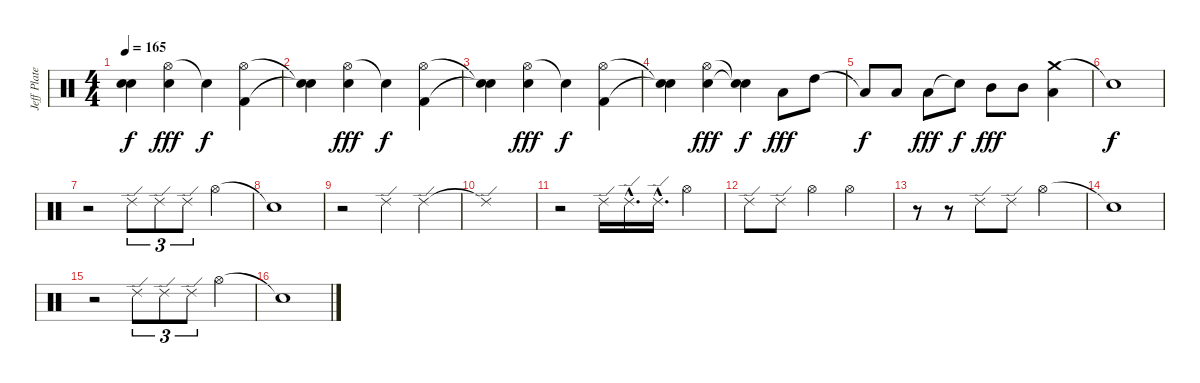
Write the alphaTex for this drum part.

\track ("Jeff Plate" "Jeff Plate") {instrument percussion}
\staff {score}
\articulation defaults
\ts (4 4)
\tempo 165
\clef neutral
\ks c
("Snare (hit)"{t} "Snare (hit)"{t}).4{dy f} ("Hi-Hat (open)" "Electric Snare (hit)").4{dy fff} "Snare (hit)"{t}.4{dy f} ("Hi-Hat (open)" "Kick (hit) 2").4 |
("Snare (hit)"{t} "Snare (hit)"{t}).4 ("Hi-Hat (open)" "Electric Snare (hit)").4{dy fff} "Snare (hit)"{t}.4{dy f} ("Hi-Hat (open)" "Kick (hit) 2").4 |
("Snare (hit)"{t} "Snare (hit)"{t}).4 ("Hi-Hat (open)" "Electric Snare (hit)").4{dy fff} "Snare (hit)"{t}.4{dy f} ("Hi-Hat (open)" "Kick (hit) 2").4 |
("Snare (hit)"{t} "Snare (hit)"{t}).4 ("Hi-Hat (open)" "Electric Snare (hit)").4{dy fff} ("Snare (hit)"{t} "Snare (hit)"{t}).4{dy f} "Low Tom (hit)".8{dy fff} "High Tom (hit)".8 |
"Low Tom (hit)"{t}.8{dy f} "Low Tom (hit)".8 "Low Tom (hit)".8{dy fff} "Snare (hit)"{t}.8{dy f} "Mid Tom (hit)".8{dy fff} "Mid Tom (hit)".8 ("Crash medium (hit)" "Low Tom (hit)").4 |
"Snare (hit)"{t}.1{dy f} |
r.2 "Ride (edge) 2".8{tu (3 2)} "Ride (edge) 2".8{tu (3 2)} "Ride (edge) 2".8{tu (3 2)} "Hi-Hat (open)".4 |
"Snare (hit)"{t}.1 |
r.2 "Ride (edge) 2".4 "Ride (edge) 2".4 |
"Ride (edge) 2"{t}.1 |
r.2 "Ride (edge) 2".16 "Ride (edge) 2"{hac}.16{d} "Ride (edge) 2"{hac}.16{d} "Hi-Hat (open)".4 |
"Ride (edge) 2".8 "Ride (edge) 2".8 "Hi-Hat (open)".4 "Hi-Hat (open)".2 |
r.8 r.8 "Ride (edge) 2".8 "Ride (edge) 2".8 "Hi-Hat (open)".2 |
"Snare (hit)"{t}.1 |
r.2 "Ride (edge) 2".8{tu (3 2)} "Ride (edge) 2".8{tu (3 2)} "Ride (edge) 2".8{tu (3 2)} "Hi-Hat (open)".4 |
"Snare (hit)"{t}.1
